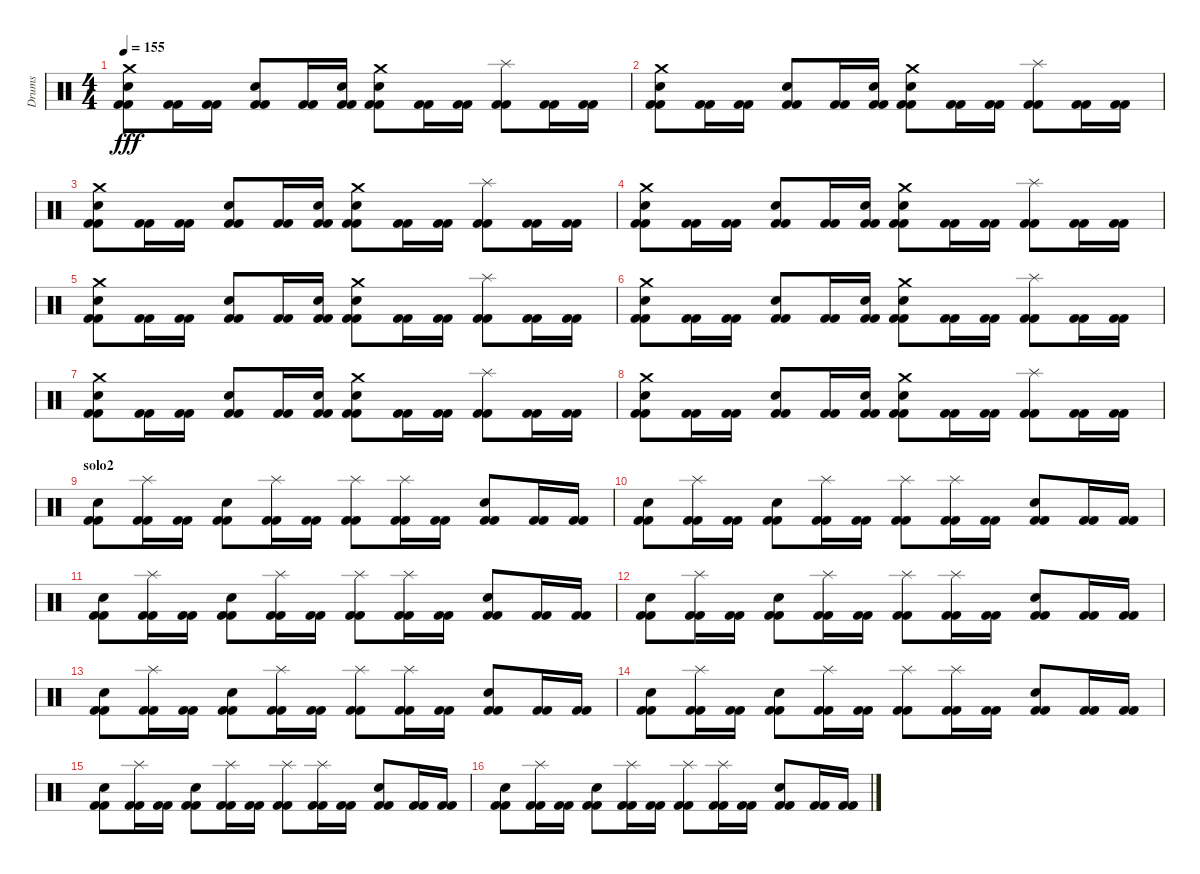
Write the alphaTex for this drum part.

\track ("Drums" "Drums") {instrument percussion}
\staff {score}
\articulation defaults
\ts (4 4)
\tempo 155
\clef neutral
\ks c
("Crash medium (hit)" "Electric Snare (hit)" "Kick (hit) 2" "Kick (hit) 2").8{dy fff} ("Kick (hit) 2" "Kick (hit) 2").16 ("Kick (hit) 2" "Kick (hit) 2").16 ("Electric Snare (hit)" "Kick (hit) 2" "Kick (hit) 2").8 ("Kick (hit) 2" "Kick (hit) 2").16 ("Snare (hit) 2" "Kick (hit) 2" "Kick (hit) 2").16 ("Crash medium (hit)" "Electric Snare (hit)" "Kick (hit) 2" "Kick (hit) 2").8 ("Kick (hit) 2" "Kick (hit) 2").16 ("Kick (hit) 2" "Kick (hit) 2").16 ("Splash (hit)" "Kick (hit) 2" "Kick (hit) 2").8 ("Kick (hit) 2" "Kick (hit) 2").16 ("Kick (hit) 2" "Kick (hit) 2").16 |
("Crash medium (hit)" "Electric Snare (hit)" "Kick (hit) 2" "Kick (hit) 2").8 ("Kick (hit) 2" "Kick (hit) 2").16 ("Kick (hit) 2" "Kick (hit) 2").16 ("Electric Snare (hit)" "Kick (hit) 2" "Kick (hit) 2").8 ("Kick (hit) 2" "Kick (hit) 2").16 ("Snare (hit) 2" "Kick (hit) 2" "Kick (hit) 2").16 ("Crash medium (hit)" "Electric Snare (hit)" "Kick (hit) 2" "Kick (hit) 2").8 ("Kick (hit) 2" "Kick (hit) 2").16 ("Kick (hit) 2" "Kick (hit) 2").16 ("Splash (hit)" "Kick (hit) 2" "Kick (hit) 2").8 ("Kick (hit) 2" "Kick (hit) 2").16 ("Kick (hit) 2" "Kick (hit) 2").16 |
("Crash medium (hit)" "Electric Snare (hit)" "Kick (hit) 2" "Kick (hit) 2").8 ("Kick (hit) 2" "Kick (hit) 2").16 ("Kick (hit) 2" "Kick (hit) 2").16 ("Electric Snare (hit)" "Kick (hit) 2" "Kick (hit) 2").8 ("Kick (hit) 2" "Kick (hit) 2").16 ("Snare (hit) 2" "Kick (hit) 2" "Kick (hit) 2").16 ("Crash medium (hit)" "Electric Snare (hit)" "Kick (hit) 2" "Kick (hit) 2").8 ("Kick (hit) 2" "Kick (hit) 2").16 ("Kick (hit) 2" "Kick (hit) 2").16 ("Splash (hit)" "Kick (hit) 2" "Kick (hit) 2").8 ("Kick (hit) 2" "Kick (hit) 2").16 ("Kick (hit) 2" "Kick (hit) 2").16 |
("Crash medium (hit)" "Electric Snare (hit)" "Kick (hit) 2" "Kick (hit) 2").8 ("Kick (hit) 2" "Kick (hit) 2").16 ("Kick (hit) 2" "Kick (hit) 2").16 ("Electric Snare (hit)" "Kick (hit) 2" "Kick (hit) 2").8 ("Kick (hit) 2" "Kick (hit) 2").16 ("Snare (hit) 2" "Kick (hit) 2" "Kick (hit) 2").16 ("Crash medium (hit)" "Electric Snare (hit)" "Kick (hit) 2" "Kick (hit) 2").8 ("Kick (hit) 2" "Kick (hit) 2").16 ("Kick (hit) 2" "Kick (hit) 2").16 ("Splash (hit)" "Kick (hit) 2" "Kick (hit) 2").8 ("Kick (hit) 2" "Kick (hit) 2").16 ("Kick (hit) 2" "Kick (hit) 2").16 |
("Crash medium (hit)" "Electric Snare (hit)" "Kick (hit) 2" "Kick (hit) 2").8 ("Kick (hit) 2" "Kick (hit) 2").16 ("Kick (hit) 2" "Kick (hit) 2").16 ("Electric Snare (hit)" "Kick (hit) 2" "Kick (hit) 2").8 ("Kick (hit) 2" "Kick (hit) 2").16 ("Snare (hit) 2" "Kick (hit) 2" "Kick (hit) 2").16 ("Crash medium (hit)" "Electric Snare (hit)" "Kick (hit) 2" "Kick (hit) 2").8 ("Kick (hit) 2" "Kick (hit) 2").16 ("Kick (hit) 2" "Kick (hit) 2").16 ("Splash (hit)" "Kick (hit) 2" "Kick (hit) 2").8 ("Kick (hit) 2" "Kick (hit) 2").16 ("Kick (hit) 2" "Kick (hit) 2").16 |
("Crash medium (hit)" "Electric Snare (hit)" "Kick (hit) 2" "Kick (hit) 2").8 ("Kick (hit) 2" "Kick (hit) 2").16 ("Kick (hit) 2" "Kick (hit) 2").16 ("Electric Snare (hit)" "Kick (hit) 2" "Kick (hit) 2").8 ("Kick (hit) 2" "Kick (hit) 2").16 ("Snare (hit) 2" "Kick (hit) 2" "Kick (hit) 2").16 ("Crash medium (hit)" "Electric Snare (hit)" "Kick (hit) 2" "Kick (hit) 2").8 ("Kick (hit) 2" "Kick (hit) 2").16 ("Kick (hit) 2" "Kick (hit) 2").16 ("Splash (hit)" "Kick (hit) 2" "Kick (hit) 2").8 ("Kick (hit) 2" "Kick (hit) 2").16 ("Kick (hit) 2" "Kick (hit) 2").16 |
("Crash medium (hit)" "Electric Snare (hit)" "Kick (hit) 2" "Kick (hit) 2").8 ("Kick (hit) 2" "Kick (hit) 2").16 ("Kick (hit) 2" "Kick (hit) 2").16 ("Electric Snare (hit)" "Kick (hit) 2" "Kick (hit) 2").8 ("Kick (hit) 2" "Kick (hit) 2").16 ("Snare (hit) 2" "Kick (hit) 2" "Kick (hit) 2").16 ("Crash medium (hit)" "Electric Snare (hit)" "Kick (hit) 2" "Kick (hit) 2").8 ("Kick (hit) 2" "Kick (hit) 2").16 ("Kick (hit) 2" "Kick (hit) 2").16 ("Splash (hit)" "Kick (hit) 2" "Kick (hit) 2").8 ("Kick (hit) 2" "Kick (hit) 2").16 ("Kick (hit) 2" "Kick (hit) 2").16 |
("Crash medium (hit)" "Electric Snare (hit)" "Kick (hit) 2" "Kick (hit) 2").8 ("Kick (hit) 2" "Kick (hit) 2").16 ("Kick (hit) 2" "Kick (hit) 2").16 ("Electric Snare (hit)" "Kick (hit) 2" "Kick (hit) 2").8 ("Kick (hit) 2" "Kick (hit) 2").16 ("Snare (hit) 2" "Kick (hit) 2" "Kick (hit) 2").16 ("Crash medium (hit)" "Electric Snare (hit)" "Kick (hit) 2" "Kick (hit) 2").8 ("Kick (hit) 2" "Kick (hit) 2").16 ("Kick (hit) 2" "Kick (hit) 2").16 ("Splash (hit)" "Kick (hit) 2" "Kick (hit) 2").8 ("Kick (hit) 2" "Kick (hit) 2").16 ("Kick (hit) 2" "Kick (hit) 2").16 |
\section ("" "solo2")
("Snare (hit) 2" "Kick (hit) 2" "Kick (hit) 2").8 ("Splash (hit)" "Kick (hit) 2" "Kick (hit) 2").16 ("Kick (hit) 2" "Kick (hit) 2").16 ("Snare (hit) 2" "Kick (hit) 2" "Kick (hit) 2").8 ("Splash (hit)" "Kick (hit) 2" "Kick (hit) 2").16 ("Kick (hit) 2" "Kick (hit) 2").16 ("Splash (hit)" "Kick (hit) 2" "Kick (hit) 2").8 ("Splash (hit)" "Kick (hit) 2" "Kick (hit) 2").16 ("Kick (hit) 2" "Kick (hit) 2").16 ("Snare (hit) 2" "Kick (hit) 2" "Kick (hit) 2").8 ("Kick (hit) 2" "Kick (hit) 2").16 ("Kick (hit) 2" "Kick (hit) 2").16 |
("Snare (hit) 2" "Kick (hit) 2" "Kick (hit) 2").8 ("Splash (hit)" "Kick (hit) 2" "Kick (hit) 2").16 ("Kick (hit) 2" "Kick (hit) 2").16 ("Snare (hit) 2" "Kick (hit) 2" "Kick (hit) 2").8 ("Splash (hit)" "Kick (hit) 2" "Kick (hit) 2").16 ("Kick (hit) 2" "Kick (hit) 2").16 ("Splash (hit)" "Kick (hit) 2" "Kick (hit) 2").8 ("Splash (hit)" "Kick (hit) 2" "Kick (hit) 2").16 ("Kick (hit) 2" "Kick (hit) 2").16 ("Snare (hit) 2" "Kick (hit) 2" "Kick (hit) 2").8 ("Kick (hit) 2" "Kick (hit) 2").16 ("Kick (hit) 2" "Kick (hit) 2").16 |
("Snare (hit) 2" "Kick (hit) 2" "Kick (hit) 2").8 ("Splash (hit)" "Kick (hit) 2" "Kick (hit) 2").16 ("Kick (hit) 2" "Kick (hit) 2").16 ("Snare (hit) 2" "Kick (hit) 2" "Kick (hit) 2").8 ("Splash (hit)" "Kick (hit) 2" "Kick (hit) 2").16 ("Kick (hit) 2" "Kick (hit) 2").16 ("Splash (hit)" "Kick (hit) 2" "Kick (hit) 2").8 ("Splash (hit)" "Kick (hit) 2" "Kick (hit) 2").16 ("Kick (hit) 2" "Kick (hit) 2").16 ("Snare (hit) 2" "Kick (hit) 2" "Kick (hit) 2").8 ("Kick (hit) 2" "Kick (hit) 2").16 ("Kick (hit) 2" "Kick (hit) 2").16 |
("Snare (hit) 2" "Kick (hit) 2" "Kick (hit) 2").8 ("Splash (hit)" "Kick (hit) 2" "Kick (hit) 2").16 ("Kick (hit) 2" "Kick (hit) 2").16 ("Snare (hit) 2" "Kick (hit) 2" "Kick (hit) 2").8 ("Splash (hit)" "Kick (hit) 2" "Kick (hit) 2").16 ("Kick (hit) 2" "Kick (hit) 2").16 ("Splash (hit)" "Kick (hit) 2" "Kick (hit) 2").8 ("Splash (hit)" "Kick (hit) 2" "Kick (hit) 2").16 ("Kick (hit) 2" "Kick (hit) 2").16 ("Snare (hit) 2" "Kick (hit) 2" "Kick (hit) 2").8 ("Kick (hit) 2" "Kick (hit) 2").16 ("Kick (hit) 2" "Kick (hit) 2").16 |
("Snare (hit) 2" "Kick (hit) 2" "Kick (hit) 2").8 ("Splash (hit)" "Kick (hit) 2" "Kick (hit) 2").16 ("Kick (hit) 2" "Kick (hit) 2").16 ("Snare (hit) 2" "Kick (hit) 2" "Kick (hit) 2").8 ("Splash (hit)" "Kick (hit) 2" "Kick (hit) 2").16 ("Kick (hit) 2" "Kick (hit) 2").16 ("Splash (hit)" "Kick (hit) 2" "Kick (hit) 2").8 ("Splash (hit)" "Kick (hit) 2" "Kick (hit) 2").16 ("Kick (hit) 2" "Kick (hit) 2").16 ("Snare (hit) 2" "Kick (hit) 2" "Kick (hit) 2").8 ("Kick (hit) 2" "Kick (hit) 2").16 ("Kick (hit) 2" "Kick (hit) 2").16 |
("Snare (hit) 2" "Kick (hit) 2" "Kick (hit) 2").8 ("Splash (hit)" "Kick (hit) 2" "Kick (hit) 2").16 ("Kick (hit) 2" "Kick (hit) 2").16 ("Snare (hit) 2" "Kick (hit) 2" "Kick (hit) 2").8 ("Splash (hit)" "Kick (hit) 2" "Kick (hit) 2").16 ("Kick (hit) 2" "Kick (hit) 2").16 ("Splash (hit)" "Kick (hit) 2" "Kick (hit) 2").8 ("Splash (hit)" "Kick (hit) 2" "Kick (hit) 2").16 ("Kick (hit) 2" "Kick (hit) 2").16 ("Snare (hit) 2" "Kick (hit) 2" "Kick (hit) 2").8 ("Kick (hit) 2" "Kick (hit) 2").16 ("Kick (hit) 2" "Kick (hit) 2").16 |
("Snare (hit) 2" "Kick (hit) 2" "Kick (hit) 2").8 ("Splash (hit)" "Kick (hit) 2" "Kick (hit) 2").16 ("Kick (hit) 2" "Kick (hit) 2").16 ("Snare (hit) 2" "Kick (hit) 2" "Kick (hit) 2").8 ("Splash (hit)" "Kick (hit) 2" "Kick (hit) 2").16 ("Kick (hit) 2" "Kick (hit) 2").16 ("Splash (hit)" "Kick (hit) 2" "Kick (hit) 2").8 ("Splash (hit)" "Kick (hit) 2" "Kick (hit) 2").16 ("Kick (hit) 2" "Kick (hit) 2").16 ("Snare (hit) 2" "Kick (hit) 2" "Kick (hit) 2").8 ("Kick (hit) 2" "Kick (hit) 2").16 ("Kick (hit) 2" "Kick (hit) 2").16 |
("Snare (hit) 2" "Kick (hit) 2" "Kick (hit) 2").8 ("Splash (hit)" "Kick (hit) 2" "Kick (hit) 2").16 ("Kick (hit) 2" "Kick (hit) 2").16 ("Snare (hit) 2" "Kick (hit) 2" "Kick (hit) 2").8 ("Splash (hit)" "Kick (hit) 2" "Kick (hit) 2").16 ("Kick (hit) 2" "Kick (hit) 2").16 ("Splash (hit)" "Kick (hit) 2" "Kick (hit) 2").8 ("Splash (hit)" "Kick (hit) 2" "Kick (hit) 2").16 ("Kick (hit) 2" "Kick (hit) 2").16 ("Snare (hit) 2" "Kick (hit) 2" "Kick (hit) 2").8 ("Kick (hit) 2" "Kick (hit) 2").16 ("Kick (hit) 2" "Kick (hit) 2").16
